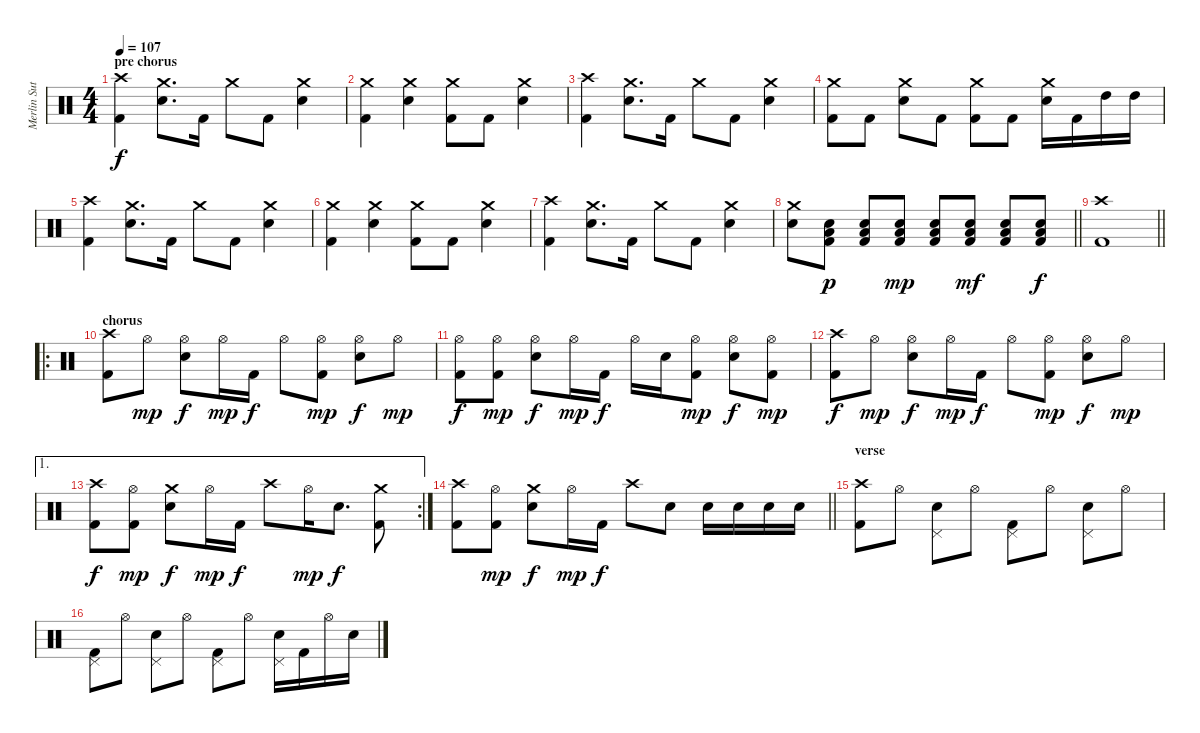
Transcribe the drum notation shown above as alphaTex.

\track ("Merlin Sutter" "Merlin Sut") {instrument percussion}
\staff {score}
\articulation defaults
\ts (4 4)
\section ("" "pre chorus")
\tempo 107
\clef neutral
\ks c
("Crash high (hit)" "Kick (hit) 2").4{dy f} ("Crash medium (hit)" "Snare (hit) 2").8{d} "Kick (hit) 2".16 "Crash medium (hit)".8 "Kick (hit) 2".8 ("Crash medium (hit)" "Snare (hit) 2").4 |
("Crash medium (hit)" "Kick (hit) 2").4 ("Crash medium (hit)" "Snare (hit) 2").4 ("Crash medium (hit)" "Kick (hit) 2").8 "Kick (hit) 2".8 ("Crash medium (hit)" "Snare (hit) 2").4 |
("Crash high (hit)" "Kick (hit) 2").4 ("Crash medium (hit)" "Snare (hit) 2").8{d} "Kick (hit) 2".16 "Crash medium (hit)".8 "Kick (hit) 2".8 ("Crash medium (hit)" "Snare (hit) 2").4 |
("Crash medium (hit)" "Kick (hit) 2").8 "Kick (hit) 2".8 ("Crash medium (hit)" "Snare (hit) 2").8 "Kick (hit) 2".8 ("Crash medium (hit)" "Kick (hit) 2").8 "Kick (hit) 2".8 ("Crash medium (hit)" "Snare (hit) 2").16 "Kick (hit) 2".16 "High Tom (hit)".16 "High Tom (hit)".16 |
("Crash high (hit)" "Kick (hit) 2").4 ("Crash medium (hit)" "Snare (hit) 2").8{d} "Kick (hit) 2".16 "Crash medium (hit)".8 "Kick (hit) 2".8 ("Crash medium (hit)" "Snare (hit) 2").4 |
("Crash medium (hit)" "Kick (hit) 2").4 ("Crash medium (hit)" "Snare (hit) 2").4 ("Crash medium (hit)" "Kick (hit) 2").8 "Kick (hit) 2".8 ("Crash medium (hit)" "Snare (hit) 2").4 |
("Crash high (hit)" "Kick (hit) 2").4 ("Crash medium (hit)" "Snare (hit) 2").8{d} "Kick (hit) 2".16 "Crash medium (hit)".8 "Kick (hit) 2".8 ("Crash medium (hit)" "Snare (hit) 2").4 |
\barLineRight lightlight
("Crash medium (hit)" "Snare (hit) 2").8 ("Low Tom (hit)" "Snare (hit) 2" "Kick (hit) 2").8{dy p} ("Low Tom (hit)" "Snare (hit) 2" "Kick (hit) 2").8 ("Low Tom (hit)" "Snare (hit) 2" "Kick (hit) 2").8{dy mp} ("Low Tom (hit)" "Snare (hit) 2" "Kick (hit) 2").8 ("Low Tom (hit)" "Snare (hit) 2" "Kick (hit) 2").8{dy mf} ("Low Tom (hit)" "Snare (hit) 2" "Kick (hit) 2").8 ("Low Tom (hit)" "Snare (hit) 2" "Kick (hit) 2").8{dy f} |
\section ("" "")
\barLineRight lightlight
("Crash high (hit)" "Kick (hit) 2").1 |
\ro
\section ("" "chorus")
("Crash high (hit)" "Kick (hit) 2").8 "Hi-Hat (open)".8{dy mp} ("Hi-Hat (open)" "Snare (hit) 2").8{dy f} "Hi-Hat (open)".16{dy mp} "Kick (hit) 2".16{dy f} "Hi-Hat (open)".8 ("Hi-Hat (open)" "Kick (hit) 2").8{dy mp} ("Hi-Hat (open)" "Snare (hit) 2").8{dy f} "Hi-Hat (open)".8{dy mp} |
("Hi-Hat (open)" "Kick (hit) 2").8{dy f} ("Hi-Hat (open)" "Kick (hit) 2").8{dy mp} ("Hi-Hat (open)" "Snare (hit) 2").8{dy f} "Hi-Hat (open)".16{dy mp} "Kick (hit) 2".16{dy f} "Hi-Hat (open)".16 "Snare (hit) 2".16 ("Hi-Hat (open)" "Kick (hit) 2").8{dy mp} ("Hi-Hat (open)" "Snare (hit) 2").8{dy f} ("Hi-Hat (open)" "Kick (hit) 2").8{dy mp} |
("Crash high (hit)" "Kick (hit) 2").8{dy f} "Hi-Hat (open)".8{dy mp} ("Hi-Hat (open)" "Snare (hit) 2").8{dy f} "Hi-Hat (open)".16{dy mp} "Kick (hit) 2".16{dy f} "Hi-Hat (open)".8 ("Hi-Hat (open)" "Kick (hit) 2").8{dy mp} ("Hi-Hat (open)" "Snare (hit) 2").8{dy f} "Hi-Hat (open)".8{dy mp} |
\ae 1
\rc 2
("Crash high (hit)" "Kick (hit) 2").8{dy f} ("Hi-Hat (open)" "Kick (hit) 2").8{dy mp} ("Crash medium (hit)" "Snare (hit) 2").8{dy f} "Hi-Hat (open)".16{dy mp} "Kick (hit) 2".16{dy f} "Crash high (hit)".8 "Hi-Hat (open)".16{dy mp} "Snare (hit) 2".8{d dy f} ("Crash medium (hit)" "Kick (hit) 2").8 |
\barLineRight lightlight
("Crash high (hit)" "Kick (hit) 2").8 ("Hi-Hat (open)" "Kick (hit) 2").8{dy mp} ("Crash medium (hit)" "Snare (hit) 2").8{dy f} "Hi-Hat (open)".16{dy mp} "Kick (hit) 2".16{dy f} "Crash high (hit)".8 "Snare (hit) 2".8 "Snare (hit) 2".16 "Snare (hit) 2".16 "Snare (hit) 2".16 "Snare (hit) 2".16 |
\section ("" "verse")
("Crash high (hit)" "Kick (hit) 2").8 "Hi-Hat (open)".8 ("Pedal Hi-Hat (hit)" "Snare (hit) 2").8 "Hi-Hat (open)".8 ("Pedal Hi-Hat (hit)" "Kick (hit) 2").8 "Hi-Hat (open)".8 ("Pedal Hi-Hat (hit)" "Snare (hit) 2").8 "Hi-Hat (open)".8 |
("Pedal Hi-Hat (hit)" "Kick (hit) 2").8 "Hi-Hat (open)".8 ("Pedal Hi-Hat (hit)" "Snare (hit) 2").8 "Hi-Hat (open)".8 ("Pedal Hi-Hat (hit)" "Kick (hit) 2").8 "Hi-Hat (open)".8 ("Pedal Hi-Hat (hit)" "Snare (hit) 2").16 "Kick (hit) 2".16 "Hi-Hat (open)".16 "Snare (hit) 2".16
